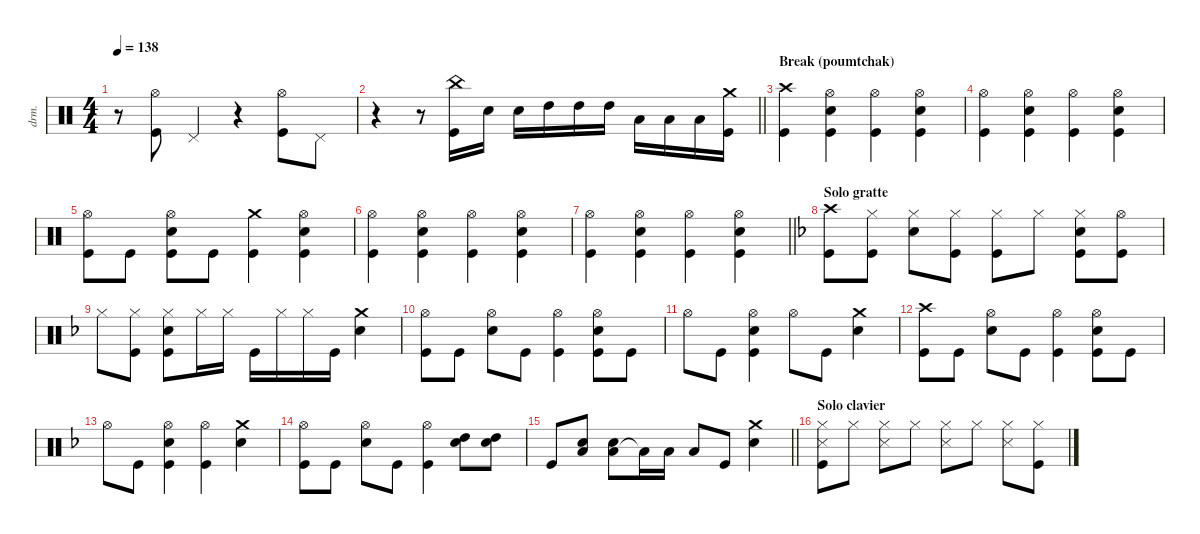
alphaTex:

\defaultSystemsLayout 4
\hideDynamics
\bracketExtendMode nobrackets
\track ("Percussions" "drm.") {instrument percussion}
\staff {score}
\articulation defaults
\ts (4 4)
\tempo 138
\clef neutral
\ks aminor
r.8{dy f beam Down} ("Hi-Hat (open)" "Kick (hit)").8{beam Down} "Pedal Hi-Hat (hit)".4{beam Up} r.4{beam Up} ("Kick (hit)" "Hi-Hat (open)").8{beam Down} "Pedal Hi-Hat (hit)".8{beam Down} |
\barLineRight lightlight
r.4{beam Down} r.8{beam Down} ("China (hit)" "Kick (hit)").16{beam Down} "Snare (hit) 2".16{beam Down} "Snare (hit) 2".16{beam Down} "High Tom (hit)".16{beam Down} "High Tom (hit)".16{beam Down} "High Tom (hit)".16{beam Down} "Low Tom (hit)".16{beam Down} "Low Tom (hit)".16{beam Down} "Low Tom (hit)".16{beam Down} ("Kick (hit)" "Crash medium (hit)").16{beam Down} |
\section ("" "Break (poumtchak)")
("Crash high (hit)" "Kick (hit)").4{beam Down} ("Hi-Hat (open)" "Kick (hit)" "Snare (hit) 2").4{beam Down} ("Hi-Hat (open)" "Kick (hit)").4{beam Down} ("Hi-Hat (open)" "Kick (hit)" "Snare (hit) 2").4{beam Down} |
("Hi-Hat (open)" "Kick (hit)").4{beam Down} ("Hi-Hat (open)" "Kick (hit)" "Snare (hit) 2").4{beam Down} ("Hi-Hat (open)" "Kick (hit)").4{beam Down} ("Hi-Hat (open)" "Kick (hit)" "Snare (hit) 2").4{beam Down} |
("Hi-Hat (open)" "Kick (hit)").8{beam Down} "Kick (hit)".8{beam Down} ("Hi-Hat (open)" "Kick (hit)" "Snare (hit) 2").8{beam Down} "Kick (hit)".8{beam Down} ("Crash medium (hit)" "Kick (hit)").4{beam Down} ("Hi-Hat (open)" "Kick (hit)" "Snare (hit) 2").4{beam Down} |
("Hi-Hat (open)" "Kick (hit)").4{beam Down} ("Hi-Hat (open)" "Kick (hit)" "Snare (hit) 2").4{beam Down} ("Hi-Hat (open)" "Kick (hit)").4{beam Down} ("Hi-Hat (open)" "Kick (hit)" "Snare (hit) 2").4{beam Down} |
\barLineRight lightlight
("Hi-Hat (open)" "Kick (hit)").4{beam Down} ("Hi-Hat (open)" "Kick (hit)" "Snare (hit) 2").4{beam Down} ("Hi-Hat (open)" "Kick (hit)").4{beam Down} ("Hi-Hat (open)" "Kick (hit)" "Snare (hit) 2").4{beam Down} |
\section ("" "Solo gratte")
\ks dminor
("Crash high (hit)"{acc forcenatural} "Kick (hit)"{acc forcenatural}).8{beam Down} ("Hi-Hat (closed)"{acc forcenatural} "Kick (hit)"{acc forcenatural}).8{beam Down} ("Hi-Hat (closed)"{acc forcenatural} "Snare (hit) 2"{acc forcenatural}).8{beam Down} ("Hi-Hat (closed)"{acc forcenatural} "Kick (hit)"{acc forcenatural}).8{beam Down} ("Hi-Hat (closed)"{acc forcenatural} "Kick (hit)"{acc forcenatural}).8{beam Down} "Hi-Hat (closed)"{acc forcenatural}.8{beam Down} ("Hi-Hat (closed)"{acc forcenatural} "Kick (hit)"{acc forcenatural} "Snare (hit) 2"{acc forcenatural}).8{beam Down} ("Hi-Hat (open)"{acc forcenatural} "Kick (hit)"{acc forcenatural}).8{beam Down} |
"Hi-Hat (closed)"{acc forcenatural}.8{beam Down} ("Hi-Hat (closed)"{acc forcenatural} "Kick (hit)"{acc forcenatural}).8{beam Down} ("Hi-Hat (closed)"{acc forcenatural} "Snare (hit) 2"{acc forcenatural} "Kick (hit)"{acc forcenatural}).8{beam Down} "Hi-Hat (closed)"{acc forcenatural}.16{beam Down} "Hi-Hat (closed)"{acc forcenatural}.16{beam Down} "Kick (hit)"{acc forcenatural}.16{beam Down} "Hi-Hat (closed)"{acc forcenatural}.16{beam Down} "Hi-Hat (closed)"{acc forcenatural}.16{beam Down} "Kick (hit)"{acc forcenatural}.16{beam Down} ("Snare (hit) 2"{acc forcenatural} "Crash medium (hit)"{acc forcenatural}).4{beam Down} |
("Hi-Hat (open)"{acc forcenatural} "Kick (hit)"{acc forcenatural}).8{beam Down} "Kick (hit)"{acc forcenatural}.8{beam Down} ("Hi-Hat (open)"{acc forcenatural} "Snare (hit) 2"{acc forcenatural}).8{beam Down} "Kick (hit)"{acc forcenatural}.8{beam Down} ("Hi-Hat (open)"{acc forcenatural} "Kick (hit)"{acc forcenatural}).4{beam Down} ("Hi-Hat (open)"{acc forcenatural} "Snare (hit) 2"{acc forcenatural} "Kick (hit)"{acc forcenatural}).8{beam Down} "Kick (hit)"{acc forcenatural}.8{beam Down} |
"Hi-Hat (open)"{acc forcenatural}.8{beam Down} "Kick (hit)"{acc forcenatural}.8{beam Down} ("Hi-Hat (open)"{acc forcenatural} "Snare (hit) 2"{acc forcenatural} "Kick (hit)"{acc forcenatural}).4{beam Down} "Hi-Hat (open)"{acc forcenatural}.8{beam Down} "Kick (hit)"{acc forcenatural}.8{beam Down} ("Crash medium (hit)"{acc forcenatural} "Snare (hit) 2"{acc forcenatural}).4{beam Down} |
("Crash high (hit)"{acc forcenatural} "Kick (hit)"{acc forcenatural}).8{beam Down} "Kick (hit)"{acc forcenatural}.8{beam Down} ("Hi-Hat (open)"{acc forcenatural} "Snare (hit) 2"{acc forcenatural}).8{beam Down} "Kick (hit)"{acc forcenatural}.8{beam Down} ("Hi-Hat (open)"{acc forcenatural} "Kick (hit)"{acc forcenatural}).4{beam Down} ("Hi-Hat (open)"{acc forcenatural} "Snare (hit) 2"{acc forcenatural} "Kick (hit)"{acc forcenatural}).8{beam Down} "Kick (hit)"{acc forcenatural}.8{beam Down} |
"Hi-Hat (open)"{acc forcenatural}.8{beam Down} "Kick (hit)"{acc forcenatural}.8{beam Down} ("Hi-Hat (open)"{acc forcenatural} "Snare (hit) 2"{acc forcenatural} "Kick (hit)"{acc forcenatural}).4{beam Down} ("Hi-Hat (open)"{acc forcenatural} "Kick (hit)"{acc forcenatural}).4{beam Down} ("Crash medium (hit)"{acc forcenatural} "Snare (hit) 2"{acc forcenatural}).4{beam Down} |
("Hi-Hat (open)"{acc forcenatural} "Kick (hit)"{acc forcenatural}).8{beam Down} "Kick (hit)"{acc forcenatural}.8{beam Down} ("Hi-Hat (open)"{acc forcenatural} "Snare (hit) 2"{acc forcenatural}).8{beam Down} "Kick (hit)"{acc forcenatural}.8{beam Down} ("Hi-Hat (open)"{acc forcenatural} "Kick (hit)"{acc forcenatural}).4{beam Down} ("Snare (hit) 2"{acc forcenatural} "High Tom (hit)"{acc forcenatural}).8{beam Down} ("Snare (hit) 2"{acc forcenatural} "High Tom (hit)"{acc forcenatural}).8{beam Down} |
\barLineRight lightlight "Kick (hit)"{acc forcenatural}.8{beam Up}
("Low Tom (hit)"{acc forcenatural} "Snare (hit) 2"{acc forcenatural}).8{beam Up} ("Low Tom (hit)"{acc forcenatural} "Snare (hit) 2"{acc forcenatural}).8{beam Down} "Low Tom (hit)"{t acc forcenatural}.16{beam Down} "Low Tom (hit)"{acc forcenatural}.16{beam Down} "Low Tom (hit)"{acc forcenatural}.8{beam Up} "Kick (hit)"{acc forcenatural}.8{beam Up} ("Crash medium (hit)"{acc forcenatural} "Snare (hit) 2"{acc forcenatural}).4{beam Down} |
\section ("" "Solo clavier")
("Snare (side stick) 3"{acc forcenatural} "Hi-Hat (closed)"{acc forcenatural} "Kick (hit)"{acc forcenatural}).8{beam Down} "Hi-Hat (closed)"{acc forcenatural}.8{beam Down} ("Snare (side stick) 3"{acc forcenatural} "Hi-Hat (closed)"{acc forcenatural}).8{beam Down} "Hi-Hat (closed)"{acc forcenatural}.8{beam Down} ("Snare (side stick) 3"{acc forcenatural} "Hi-Hat (closed)"{acc forcenatural}).8{beam Down} "Hi-Hat (closed)"{acc forcenatural}.8{beam Down} ("Snare (side stick) 3"{acc forcenatural} "Hi-Hat (closed)"{acc forcenatural}).8{beam Down} ("Hi-Hat (closed)"{acc forcenatural} "Kick (hit)"{acc forcenatural}).8{beam Down}
